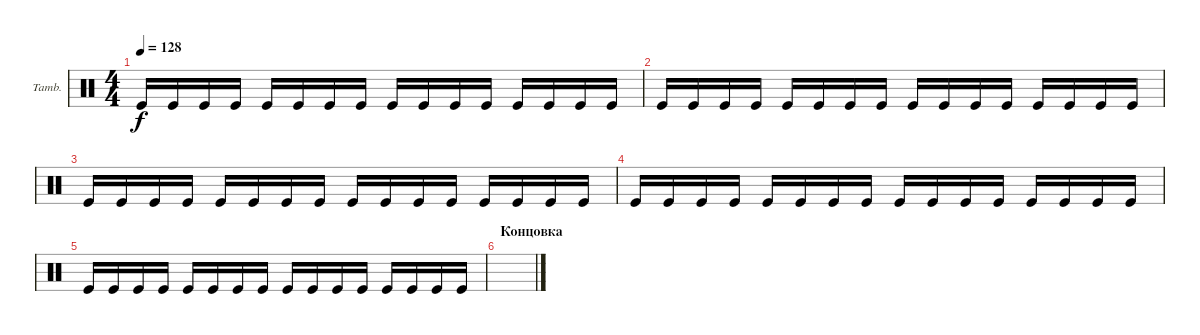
\defaultSystemsLayout 4
\bracketExtendMode groupsimilarinstruments
\firstSystemTrackNameOrientation horizontal
\otherSystemsTrackNameOrientation horizontal
\track ("Tambourine" "Tamb.") {instrument percussion}
\staff {score}
\articulation defaults
\ts (4 4)
\tempo 128
\clef neutral
\scale
0.333333
\ks c "Kick (hit)".16{dy f} "Kick (hit)".16 "Kick (hit)".16 "Kick (hit)".16 "Kick (hit)".16 "Kick (hit)".16 "Kick (hit)".16 "Kick (hit)".16 "Kick (hit)".16 "Kick (hit)".16 "Kick (hit)".16 "Kick (hit)".16 "Kick (hit)".16 "Kick (hit)".16 "Kick (hit)".16 "Kick (hit)".16
|
\scale
0.333333 "Kick (hit)".16 "Kick (hit)".16 "Kick (hit)".16 "Kick (hit)".16 "Kick (hit)".16 "Kick (hit)".16 "Kick (hit)".16 "Kick (hit)".16 "Kick (hit)".16 "Kick (hit)".16 "Kick (hit)".16 "Kick (hit)".16 "Kick (hit)".16 "Kick (hit)".16 "Kick (hit)".16 "Kick (hit)".16 |
\scale
0.333333 "Kick (hit)".16 "Kick (hit)".16 "Kick (hit)".16 "Kick (hit)".16 "Kick (hit)".16 "Kick (hit)".16 "Kick (hit)".16 "Kick (hit)".16 "Kick (hit)".16 "Kick (hit)".16 "Kick (hit)".16 "Kick (hit)".16 "Kick (hit)".16 "Kick (hit)".16 "Kick (hit)".16 "Kick (hit)".16 |
\scale
0.333333 "Kick (hit)".16 "Kick (hit)".16 "Kick (hit)".16 "Kick (hit)".16 "Kick (hit)".16 "Kick (hit)".16 "Kick (hit)".16 "Kick (hit)".16 "Kick (hit)".16 "Kick (hit)".16 "Kick (hit)".16 "Kick (hit)".16 "Kick (hit)".16 "Kick (hit)".16 "Kick (hit)".16 "Kick (hit)".16 |
\scale
0.333333 "Kick (hit)".16 "Kick (hit)".16 "Kick (hit)".16 "Kick (hit)".16 "Kick (hit)".16 "Kick (hit)".16 "Kick (hit)".16 "Kick (hit)".16 "Kick (hit)".16 "Kick (hit)".16 "Kick (hit)".16 "Kick (hit)".16 "Kick (hit)".16 "Kick (hit)".16 "Kick (hit)".16 "Kick (hit)".16 |
\section ("" "Концовка")
\scale
0.333333 |
\scale
0.333333 |
\scale
0.333333 |
\scale
0.333333
